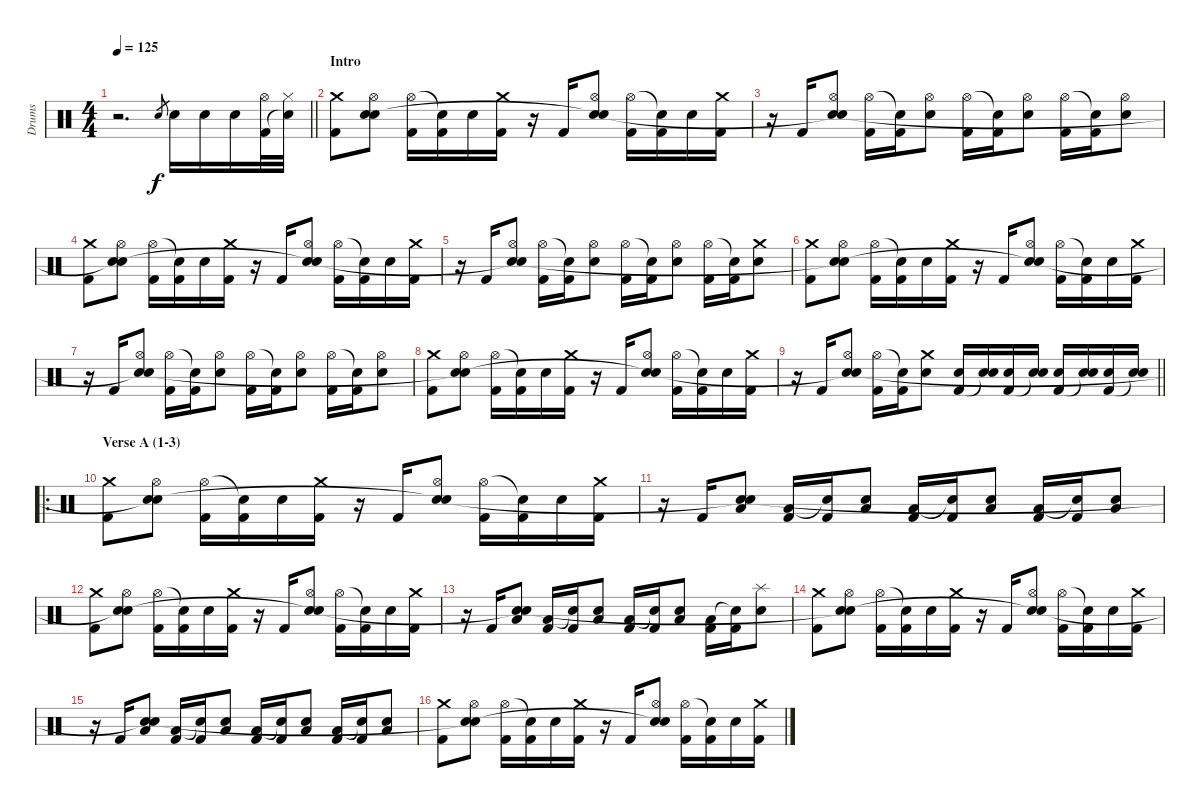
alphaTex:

\track ("Drums" "Drums") {instrument percussion}
\staff {score}
\articulation defaults
\ts (4 4)
\tempo 125
\clef neutral
\barLineRight lightlight
\ks c
r.2{d dy f} "Electric Snare (hit)".8{gr} "Electric Snare (hit)".16 "Electric Snare (hit)".16 "Electric Snare (hit)".16 ("Hi-Hat (open)" "Kick (hit) 2").32 ("Hi-Hat (closed)" "Snare (hit)"{t}).32 |
\section ("" "Intro")
("Crash medium (hit)" "Kick (hit) 2").8 ("Hi-Hat (open)" "Electric Snare (hit)" "Snare (hit)").8 ("Hi-Hat (open)" "Kick (hit) 2").16 ("Snare (hit)"{t} "Kick (hit) 2").16 "Electric Snare (hit)".16 ("Crash medium (hit)" "Kick (hit) 2").16 r.16 "Kick (hit) 2".16 ("Hi-Hat (open)" "Electric Snare (hit)" "Snare (hit)"{t}).8 ("Hi-Hat (open)" "Kick (hit) 2").16 ("Snare (hit)"{t} "Kick (hit) 2").16 "Electric Snare (hit)".16 ("Crash medium (hit)" "Kick (hit) 2").16 |
r.16 "Kick (hit) 2".16 ("Hi-Hat (open)" "Electric Snare (hit)" "Snare (hit)"{t}).8 ("Hi-Hat (open)" "Kick (hit) 2").16 ("Snare (hit)"{t} "Kick (hit) 2").16 ("Hi-Hat (open)" "Electric Snare (hit)").8 ("Hi-Hat (open)" "Kick (hit) 2").16 ("Snare (hit)"{t} "Kick (hit) 2").16 ("Hi-Hat (open)" "Electric Snare (hit)").8 ("Hi-Hat (open)" "Kick (hit) 2").16 ("Snare (hit)"{t} "Kick (hit) 2").16 ("Hi-Hat (open)" "Electric Snare (hit)").8 |
("Crash medium (hit)" "Kick (hit) 2").8 ("Hi-Hat (open)" "Electric Snare (hit)" "Snare (hit)"{t}).8 ("Hi-Hat (open)" "Kick (hit) 2").16 ("Snare (hit)"{t} "Kick (hit) 2").16 "Electric Snare (hit)".16 ("Crash medium (hit)" "Kick (hit) 2").16 r.16 "Kick (hit) 2".16 ("Hi-Hat (open)" "Electric Snare (hit)" "Snare (hit)"{t}).8 ("Hi-Hat (open)" "Kick (hit) 2").16 ("Snare (hit)"{t} "Kick (hit) 2").16 "Electric Snare (hit)".16 ("Crash medium (hit)" "Kick (hit) 2").16 |
r.16 "Kick (hit) 2".16 ("Hi-Hat (open)" "Electric Snare (hit)" "Snare (hit)"{t}).8 ("Hi-Hat (open)" "Kick (hit) 2").16 ("Snare (hit)"{t} "Kick (hit) 2").16 ("Hi-Hat (open)" "Electric Snare (hit)").8 ("Hi-Hat (open)" "Kick (hit) 2").16 ("Snare (hit)"{t} "Kick (hit) 2").16 ("Hi-Hat (open)" "Electric Snare (hit)").8 ("Hi-Hat (open)" "Kick (hit) 2").16 ("Snare (hit)"{t} "Kick (hit) 2").16 ("Crash medium (hit)" "Electric Snare (hit)").8 |
("Crash medium (hit)" "Kick (hit) 2").8 ("Hi-Hat (open)" "Electric Snare (hit)" "Snare (hit)"{t}).8 ("Hi-Hat (open)" "Kick (hit) 2").16 ("Snare (hit)"{t} "Kick (hit) 2").16 "Electric Snare (hit)".16 ("Crash medium (hit)" "Kick (hit) 2").16 r.16 "Kick (hit) 2".16 ("Hi-Hat (open)" "Electric Snare (hit)" "Snare (hit)"{t}).8 ("Hi-Hat (open)" "Kick (hit) 2").16 ("Snare (hit)"{t} "Kick (hit) 2").16 "Electric Snare (hit)".16 ("Crash medium (hit)" "Kick (hit) 2").16 |
r.16 "Kick (hit) 2".16 ("Hi-Hat (open)" "Electric Snare (hit)" "Snare (hit)"{t}).8 ("Hi-Hat (open)" "Kick (hit) 2").16 ("Snare (hit)"{t} "Kick (hit) 2").16 ("Hi-Hat (open)" "Electric Snare (hit)").8 ("Hi-Hat (open)" "Kick (hit) 2").16 ("Snare (hit)"{t} "Kick (hit) 2").16 ("Hi-Hat (open)" "Electric Snare (hit)").8 ("Hi-Hat (open)" "Kick (hit) 2").16 ("Snare (hit)"{t} "Kick (hit) 2").16 ("Hi-Hat (open)" "Electric Snare (hit)").8 |
("Crash medium (hit)" "Kick (hit) 2").8 ("Hi-Hat (open)" "Electric Snare (hit)" "Snare (hit)"{t}).8 ("Hi-Hat (open)" "Kick (hit) 2").16 ("Snare (hit)"{t} "Kick (hit) 2").16 "Electric Snare (hit)".16 ("Crash medium (hit)" "Kick (hit) 2").16 r.16 "Kick (hit) 2".16 ("Hi-Hat (open)" "Electric Snare (hit)" "Snare (hit)"{t}).8 ("Hi-Hat (open)" "Kick (hit) 2").16 ("Snare (hit)"{t} "Kick (hit) 2").16 "Electric Snare (hit)".16 ("Crash medium (hit)" "Kick (hit) 2").16 |
\barLineRight lightlight
r.16 "Kick (hit) 2".16 ("Hi-Hat (open)" "Electric Snare (hit)" "Snare (hit)"{t}).8 ("Hi-Hat (open)" "Kick (hit) 2").16 ("Snare (hit)"{t} "Kick (hit) 2").16 ("Crash medium (hit)" "Electric Snare (hit)").8 ("Electric Snare (hit)" "Kick (hit) 2").16 ("Electric Snare (hit)" "Snare (hit)"{t}).16 ("Electric Snare (hit)" "Kick (hit) 2").16 ("Electric Snare (hit)" "Snare (hit)"{t}).16 ("Electric Snare (hit)" "Kick (hit) 2").16 ("Electric Snare (hit)" "Snare (hit)"{t}).16 ("Electric Snare (hit)" "Kick (hit) 2").16 ("Electric Snare (hit)" "Snare (hit)"{t}).16 |
\ro
\section ("" "Verse A (1-3)")
("Crash medium (hit)" "Kick (hit) 2").8 ("Hi-Hat (open)" "Electric Snare (hit)" "Snare (hit)"{t}).8 ("Hi-Hat (open)" "Kick (hit) 2").16 ("Snare (hit)"{t} "Kick (hit) 2").16 "Electric Snare (hit)".16 ("Crash medium (hit)" "Kick (hit) 2").16 r.16 "Kick (hit) 2".16 ("Hi-Hat (open)" "Electric Snare (hit)" "Snare (hit)"{t}).8 ("Hi-Hat (open)" "Kick (hit) 2").16 ("Snare (hit)"{t} "Kick (hit) 2").16 "Electric Snare (hit)".16 ("Crash medium (hit)" "Kick (hit) 2").16 |
r.16 "Kick (hit) 2".16 ("Electric Snare (hit)" "Low Floor Tom (hit)" "Snare (hit)"{t}).8 ("Low Floor Tom (hit)" "Kick (hit) 2").16 ("Snare (hit)"{t} "Kick (hit) 2").16 ("Electric Snare (hit)" "Low Floor Tom (hit)").8 ("Low Floor Tom (hit)" "Kick (hit) 2").16 ("Snare (hit)"{t} "Kick (hit) 2").16 ("Electric Snare (hit)" "Low Floor Tom (hit)").8 ("Low Floor Tom (hit)" "Kick (hit) 2").16 ("Snare (hit)"{t} "Kick (hit) 2").16 ("Electric Snare (hit)" "Low Floor Tom (hit)").8 |
("Crash medium (hit)" "Kick (hit) 2").8 ("Hi-Hat (open)" "Electric Snare (hit)" "Snare (hit)"{t}).8 ("Hi-Hat (open)" "Kick (hit) 2").16 ("Snare (hit)"{t} "Kick (hit) 2").16 "Electric Snare (hit)".16 ("Crash medium (hit)" "Kick (hit) 2").16 r.16 "Kick (hit) 2".16 ("Hi-Hat (open)" "Electric Snare (hit)" "Snare (hit)"{t}).8 ("Hi-Hat (open)" "Kick (hit) 2").16 ("Snare (hit)"{t} "Kick (hit) 2").16 "Electric Snare (hit)".16 ("Crash medium (hit)" "Kick (hit) 2").16 |
r.16 "Kick (hit) 2".16 ("Electric Snare (hit)" "Low Floor Tom (hit)" "Snare (hit)"{t}).8 ("Low Floor Tom (hit)" "Kick (hit) 2").16 ("Snare (hit)"{t} "Kick (hit) 2").16 ("Electric Snare (hit)" "Low Floor Tom (hit)").8 ("Low Floor Tom (hit)" "Kick (hit) 2").16 ("Snare (hit)"{t} "Kick (hit) 2").16 ("Electric Snare (hit)" "Low Floor Tom (hit)").8 ("Low Floor Tom (hit)" "Kick (hit) 2").16 ("Snare (hit)"{t} "Kick (hit) 2").16 ("Splash (hit)" "Electric Snare (hit)").8 |
("Crash medium (hit)" "Kick (hit) 2").8 ("Hi-Hat (open)" "Electric Snare (hit)" "Snare (hit)"{t}).8 ("Hi-Hat (open)" "Kick (hit) 2").16 ("Snare (hit)"{t} "Kick (hit) 2").16 "Electric Snare (hit)".16 ("Crash medium (hit)" "Kick (hit) 2").16 r.16 "Kick (hit) 2".16 ("Hi-Hat (open)" "Electric Snare (hit)" "Snare (hit)"{t}).8 ("Hi-Hat (open)" "Kick (hit) 2").16 ("Snare (hit)"{t} "Kick (hit) 2").16 "Electric Snare (hit)".16 ("Crash medium (hit)" "Kick (hit) 2").16 |
r.16 "Kick (hit) 2".16 ("Electric Snare (hit)" "Low Floor Tom (hit)" "Snare (hit)"{t}).8 ("Low Floor Tom (hit)" "Kick (hit) 2").16 ("Snare (hit)"{t} "Kick (hit) 2").16 ("Electric Snare (hit)" "Low Floor Tom (hit)").8 ("Low Floor Tom (hit)" "Kick (hit) 2").16 ("Snare (hit)"{t} "Kick (hit) 2").16 ("Electric Snare (hit)" "Low Floor Tom (hit)").8 ("Low Floor Tom (hit)" "Kick (hit) 2").16 ("Snare (hit)"{t} "Kick (hit) 2").16 ("Electric Snare (hit)" "Low Floor Tom (hit)").8 |
("Crash medium (hit)" "Kick (hit) 2").8 ("Hi-Hat (open)" "Electric Snare (hit)" "Snare (hit)"{t}).8 ("Hi-Hat (open)" "Kick (hit) 2").16 ("Snare (hit)"{t} "Kick (hit) 2").16 "Electric Snare (hit)".16 ("Crash medium (hit)" "Kick (hit) 2").16 r.16 "Kick (hit) 2".16 ("Hi-Hat (open)" "Electric Snare (hit)" "Snare (hit)"{t}).8 ("Hi-Hat (open)" "Kick (hit) 2").16 ("Snare (hit)"{t} "Kick (hit) 2").16 "Electric Snare (hit)".16 ("Crash medium (hit)" "Kick (hit) 2").16
